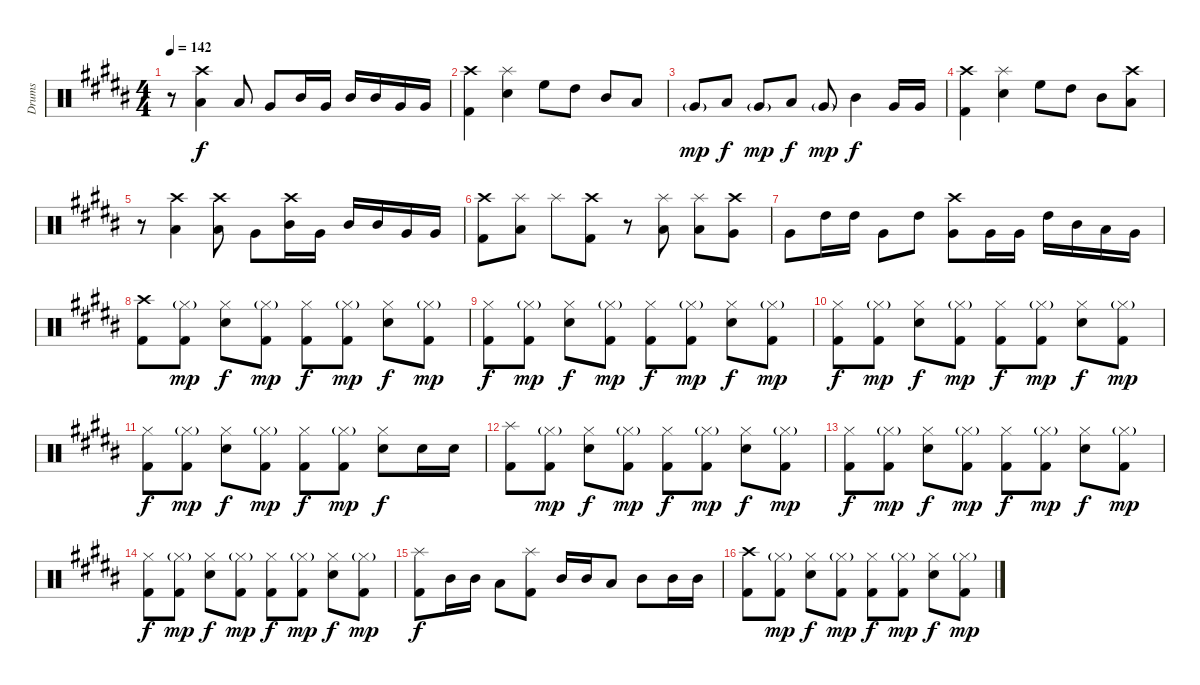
\track ("Drums" "Drums") {instrument percussion}
\staff {score}
\articulation defaults
\ts (4 4)
\tempo 142
\clef neutral
\ks b
r.8{dy f} ("Crash high (hit)" "Low Tom (hit)").4 "Low Tom (hit)".8 "Very Low Tom (hit)".8 "Mid Tom (hit)".16 "Very Low Tom (hit)".16 "Mid Tom (hit)".16 "Mid Tom (hit)".16 "Very Low Tom (hit)".16 "Very Low Tom (hit)".16 |
("Crash high (hit)" "Kick (hit) 2").4 ("Splash (hit)" "Electric Snare (hit)").4 "High Floor Tom (hit)".8 "High Tom (hit)".8 "Mid Tom (hit)".8 "Low Tom (hit)".8 |
"Very Low Tom (hit)"{g}.8{dy mp} "Low Tom (hit)".8{dy f} "Very Low Tom (hit)"{g}.8{dy mp} "Low Tom (hit)".8{dy f} "Very Low Tom (hit)"{g}.8{dy mp} "Mid Tom (hit)".4{dy f} "Very Low Tom (hit)".16 "Very Low Tom (hit)".16 |
("Crash high (hit)" "Kick (hit) 2").4 ("Splash (hit)" "Electric Snare (hit)").4 "High Floor Tom (hit)".8 "High Tom (hit)".8 "Mid Tom (hit)".8 ("Crash high (hit)" "Low Tom (hit)").8 |
r.8 ("Crash high (hit)" "Low Tom (hit)").4 ("Crash high (hit)" "Low Tom (hit)").8 "Very Low Tom (hit)".8 ("Crash high (hit)" "Mid Tom (hit)").16 "Very Low Tom (hit)".16 "Mid Tom (hit)".16 "Mid Tom (hit)".16 "Very Low Tom (hit)".16 "Very Low Tom (hit)".16 |
("Crash high (hit)" "Kick (hit) 2").8 ("Splash (hit)" "Low Tom (hit)").8 "Splash (hit)".8 ("Crash high (hit)" "Kick (hit) 2").8 r.8 ("Splash (hit)" "Low Tom (hit)").8 ("Splash (hit)" "Low Tom (hit)").8 ("Crash high (hit)" "Very Low Tom (hit)").8 |
"Very Low Tom (hit)".8 "High Tom (hit)".16 "High Tom (hit)".16 "Very Low Tom (hit)".8 "High Tom (hit)".8 ("Crash high (hit)" "Very Low Tom (hit)").8 "Very Low Tom (hit)".16 "Very Low Tom (hit)".16 "High Tom (hit)".16 "Mid Tom (hit)".16 "Low Tom (hit)".16 "Very Low Tom (hit)".16 |
("Crash high (hit)" "Kick (hit) 2").8 ("Hi-Hat (closed)"{g} "Kick (hit) 2").8{dy mp} ("Hi-Hat (closed)" "Electric Snare (hit)").8{dy f} ("Hi-Hat (closed)"{g} "Kick (hit) 2").8{dy mp} ("Hi-Hat (closed)" "Kick (hit) 2").8{dy f} ("Hi-Hat (closed)"{g} "Kick (hit) 2").8{dy mp} ("Hi-Hat (closed)" "Electric Snare (hit)").8{dy f} ("Hi-Hat (closed)"{g} "Kick (hit) 2").8{dy mp} |
("Hi-Hat (closed)" "Kick (hit) 2").8{dy f} ("Hi-Hat (closed)"{g} "Kick (hit) 2").8{dy mp} ("Hi-Hat (closed)" "Electric Snare (hit)").8{dy f} ("Hi-Hat (closed)"{g} "Kick (hit) 2").8{dy mp} ("Hi-Hat (closed)" "Kick (hit) 2").8{dy f} ("Hi-Hat (closed)"{g} "Kick (hit) 2").8{dy mp} ("Hi-Hat (closed)" "Electric Snare (hit)").8{dy f} ("Hi-Hat (closed)"{g} "Kick (hit) 2").8{dy mp} |
("Hi-Hat (closed)" "Kick (hit) 2").8{dy f} ("Hi-Hat (closed)"{g} "Kick (hit) 2").8{dy mp} ("Hi-Hat (closed)" "Electric Snare (hit)").8{dy f} ("Hi-Hat (closed)"{g} "Kick (hit) 2").8{dy mp} ("Hi-Hat (closed)" "Kick (hit) 2").8{dy f} ("Hi-Hat (closed)"{g} "Kick (hit) 2").8{dy mp} ("Hi-Hat (closed)" "Electric Snare (hit)").8{dy f} ("Hi-Hat (closed)"{g} "Kick (hit) 2").8{dy mp} |
("Hi-Hat (closed)" "Kick (hit) 2").8{dy f} ("Hi-Hat (closed)"{g} "Kick (hit) 2").8{dy mp} ("Hi-Hat (closed)" "Electric Snare (hit)").8{dy f} ("Hi-Hat (closed)"{g} "Kick (hit) 2").8{dy mp} ("Hi-Hat (closed)" "Kick (hit) 2").8{dy f} ("Hi-Hat (closed)"{g} "Kick (hit) 2").8{dy mp} ("Hi-Hat (closed)" "Electric Snare (hit)").8{dy f} "Electric Snare (hit)".16 "Electric Snare (hit)".16 |
("Splash (hit)" "Kick (hit) 2").8 ("Hi-Hat (closed)"{g} "Kick (hit) 2").8{dy mp} ("Hi-Hat (closed)" "Electric Snare (hit)").8{dy f} ("Hi-Hat (closed)"{g} "Kick (hit) 2").8{dy mp} ("Hi-Hat (closed)" "Kick (hit) 2").8{dy f} ("Hi-Hat (closed)"{g} "Kick (hit) 2").8{dy mp} ("Hi-Hat (closed)" "Electric Snare (hit)").8{dy f} ("Hi-Hat (closed)"{g} "Kick (hit) 2").8{dy mp} |
("Hi-Hat (closed)" "Kick (hit) 2").8{dy f} ("Hi-Hat (closed)"{g} "Kick (hit) 2").8{dy mp} ("Hi-Hat (closed)" "Electric Snare (hit)").8{dy f} ("Hi-Hat (closed)"{g} "Kick (hit) 2").8{dy mp} ("Hi-Hat (closed)" "Kick (hit) 2").8{dy f} ("Hi-Hat (closed)"{g} "Kick (hit) 2").8{dy mp} ("Hi-Hat (closed)" "Electric Snare (hit)").8{dy f} ("Hi-Hat (closed)"{g} "Kick (hit) 2").8{dy mp} |
("Hi-Hat (closed)" "Kick (hit) 2").8{dy f} ("Hi-Hat (closed)"{g} "Kick (hit) 2").8{dy mp} ("Hi-Hat (closed)" "Electric Snare (hit)").8{dy f} ("Hi-Hat (closed)"{g} "Kick (hit) 2").8{dy mp} ("Hi-Hat (closed)" "Kick (hit) 2").8{dy f} ("Hi-Hat (closed)"{g} "Kick (hit) 2").8{dy mp} ("Hi-Hat (closed)" "Electric Snare (hit)").8{dy f} ("Hi-Hat (closed)"{g} "Kick (hit) 2").8{dy mp} |
("Splash (hit)" "Kick (hit) 2").8{dy f} "Mid Tom (hit)".16 "Mid Tom (hit)".16 "Low Tom (hit)".8 ("Splash (hit)" "Kick (hit) 2").8 "Mid Tom (hit)".16 "Mid Tom (hit)".16 "Low Tom (hit)".8 "Mid Tom (hit)".8 "Mid Tom (hit)".16 "Mid Tom (hit)".16 |
("Crash high (hit)" "Kick (hit) 2").8 ("Hi-Hat (closed)"{g} "Kick (hit) 2").8{dy mp} ("Hi-Hat (closed)" "Electric Snare (hit)").8{dy f} ("Hi-Hat (closed)"{g} "Kick (hit) 2").8{dy mp} ("Hi-Hat (closed)" "Kick (hit) 2").8{dy f} ("Hi-Hat (closed)"{g} "Kick (hit) 2").8{dy mp} ("Hi-Hat (closed)" "Electric Snare (hit)").8{dy f} ("Hi-Hat (closed)"{g} "Kick (hit) 2").8{dy mp}
